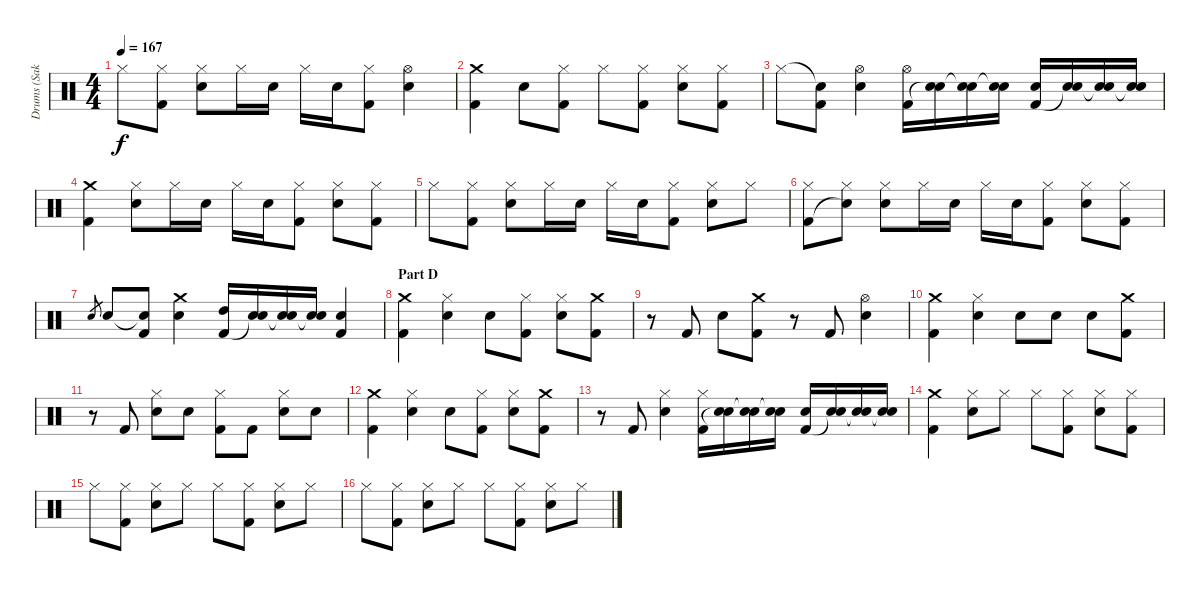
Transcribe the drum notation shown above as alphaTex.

\track ("Drums (Sakura)" "Drums (Sak") {instrument percussion}
\staff {score}
\articulation defaults
\ts (4 4)
\tempo 167
\clef neutral
\ks c "Hi-Hat (closed)".8{dy f}
("Hi-Hat (closed)" "Kick (hit) 2").8 ("Hi-Hat (closed)" "Electric Snare (hit)").8 "Hi-Hat (closed)".16 "Electric Snare (hit)".16 "Hi-Hat (closed)".16 "Electric Snare (hit)".16 ("Hi-Hat (closed)" "Kick (hit) 2").8 ("Hi-Hat (open)" "Electric Snare (hit)").4 |
("Crash medium (hit)" "Kick (hit) 2").4 "Electric Snare (hit)".8 ("Hi-Hat (closed)" "Kick (hit) 2").8 "Hi-Hat (closed)".8 ("Hi-Hat (closed)" "Kick (hit) 2").8 ("Hi-Hat (closed)" "Electric Snare (hit)").8 ("Hi-Hat (closed)" "Kick (hit) 2").8 |
"Hi-Hat (closed)".8 ("Snare (hit)"{t} "Kick (hit) 2").8 ("Hi-Hat (open)" "Electric Snare (hit)").4 ("Hi-Hat (open)" "Kick (hit) 2").16 ("Electric Snare (hit)" "Snare (hit)"{t}).16 ("Electric Snare (hit)" "Snare (hit)"{t}).16 ("Electric Snare (hit)" "Snare (hit)"{t}).16 ("Electric Snare (hit)" "Kick (hit) 2").16 ("Electric Snare (hit)" "Snare (hit)"{t}).16 ("Electric Snare (hit)" "Snare (hit)"{t}).16 ("Electric Snare (hit)" "Snare (hit)"{t}).16 |
("Crash medium (hit)" "Kick (hit) 2").4 ("Hi-Hat (closed)" "Electric Snare (hit)").8 "Hi-Hat (closed)".16 "Electric Snare (hit)".16 "Hi-Hat (closed)".16 "Electric Snare (hit)".16 ("Hi-Hat (closed)" "Kick (hit) 2").8 ("Hi-Hat (closed)" "Electric Snare (hit)").8 ("Hi-Hat (closed)" "Kick (hit) 2").8 |
"Hi-Hat (closed)".8 ("Hi-Hat (closed)" "Kick (hit) 2").8 ("Hi-Hat (closed)" "Electric Snare (hit)").8 "Hi-Hat (closed)".16 "Electric Snare (hit)".16 "Hi-Hat (closed)".16 "Electric Snare (hit)".16 ("Hi-Hat (closed)" "Kick (hit) 2").8 ("Hi-Hat (closed)" "Electric Snare (hit)").8 "Hi-Hat (closed)".8 |
("Hi-Hat (closed)" "Kick (hit) 2").8 ("Hi-Hat (closed)" "Snare (hit)"{t}).8 ("Hi-Hat (closed)" "Electric Snare (hit)").8 "Hi-Hat (closed)".16 "Electric Snare (hit)".16 "Hi-Hat (closed)".16 "Electric Snare (hit)".16 ("Hi-Hat (closed)" "Kick (hit) 2").8 ("Hi-Hat (closed)" "Electric Snare (hit)").8 ("Hi-Hat (closed)" "Kick (hit) 2").8 |
"Electric Snare (hit)".8{gr} "Electric Snare (hit)".8 ("Snare (hit)"{t} "Kick (hit) 2").8 ("Crash medium (hit)" "Electric Snare (hit)").4 ("High Tom (hit)" "Kick (hit) 2").16 ("Electric Snare (hit)" "Snare (hit)"{t}).16 ("Electric Snare (hit)" "Snare (hit)"{t}).16 ("Electric Snare (hit)" "Snare (hit)"{t}).16 ("Electric Snare (hit)" "Kick (hit) 2").4 |
\section ("" "Part D")
("Crash medium (hit)" "Kick (hit) 2").4 ("Hi-Hat (closed)" "Electric Snare (hit)").4 "Electric Snare (hit)".8 ("Hi-Hat (closed)" "Kick (hit) 2").8 ("Hi-Hat (closed)" "Electric Snare (hit)").8 ("Crash medium (hit)" "Kick (hit) 2").8 |
r.8 "Kick (hit) 2".8 "Electric Snare (hit)".8 ("Crash medium (hit)" "Kick (hit) 2").8 r.8 "Kick (hit) 2".8 ("Hi-Hat (open)" "Electric Snare (hit)").4 |
("Crash medium (hit)" "Kick (hit) 2").4 ("Hi-Hat (closed)" "Electric Snare (hit)").4 "Electric Snare (hit)".8 "Electric Snare (hit)".8 "Electric Snare (hit)".8 ("Crash medium (hit)" "Kick (hit) 2").8 |
r.8 "Kick (hit) 2".8 ("Hi-Hat (closed)" "Electric Snare (hit)").8 "Electric Snare (hit)".8 ("Hi-Hat (closed)" "Kick (hit) 2").8 "Kick (hit) 2".8 ("Hi-Hat (closed)" "Electric Snare (hit)").8 "Electric Snare (hit)".8 |
("Crash medium (hit)" "Kick (hit) 2").4 ("Hi-Hat (closed)" "Electric Snare (hit)").4 "Electric Snare (hit)".8 ("Hi-Hat (closed)" "Kick (hit) 2").8 ("Hi-Hat (closed)" "Electric Snare (hit)").8 ("Crash medium (hit)" "Kick (hit) 2").8 |
r.8 "Kick (hit) 2".8 ("Hi-Hat (closed)" "Electric Snare (hit)").4 ("Hi-Hat (closed)" "Kick (hit) 2").16 ("Electric Snare (hit)" "Snare (hit)"{t}).16 ("Electric Snare (hit)" "Snare (hit)"{t}).16 ("Electric Snare (hit)" "Snare (hit)"{t}).16 ("Electric Snare (hit)" "Kick (hit) 2").16 ("Electric Snare (hit)" "Snare (hit)"{t}).16 ("Electric Snare (hit)" "Snare (hit)"{t}).16 ("Electric Snare (hit)" "Snare (hit)"{t}).16 |
("Crash medium (hit)" "Kick (hit) 2").4 ("Hi-Hat (closed)" "Electric Snare (hit)").8 "Hi-Hat (closed)".8 "Hi-Hat (closed)".8 ("Hi-Hat (closed)" "Kick (hit) 2").8 ("Hi-Hat (closed)" "Electric Snare (hit)").8 ("Hi-Hat (closed)" "Kick (hit) 2").8 |
"Hi-Hat (closed)".8 ("Hi-Hat (closed)" "Kick (hit) 2").8 ("Hi-Hat (closed)" "Electric Snare (hit)").8 "Hi-Hat (closed)".8 "Hi-Hat (closed)".8 ("Hi-Hat (closed)" "Kick (hit) 2").8 ("Hi-Hat (closed)" "Electric Snare (hit)").8 "Hi-Hat (closed)".8 |
"Hi-Hat (closed)".8 ("Hi-Hat (closed)" "Kick (hit) 2").8 ("Hi-Hat (closed)" "Electric Snare (hit)").8 "Hi-Hat (closed)".8 "Hi-Hat (closed)".8 ("Hi-Hat (closed)" "Kick (hit) 2").8 ("Hi-Hat (closed)" "Electric Snare (hit)").8 "Hi-Hat (closed)".8
